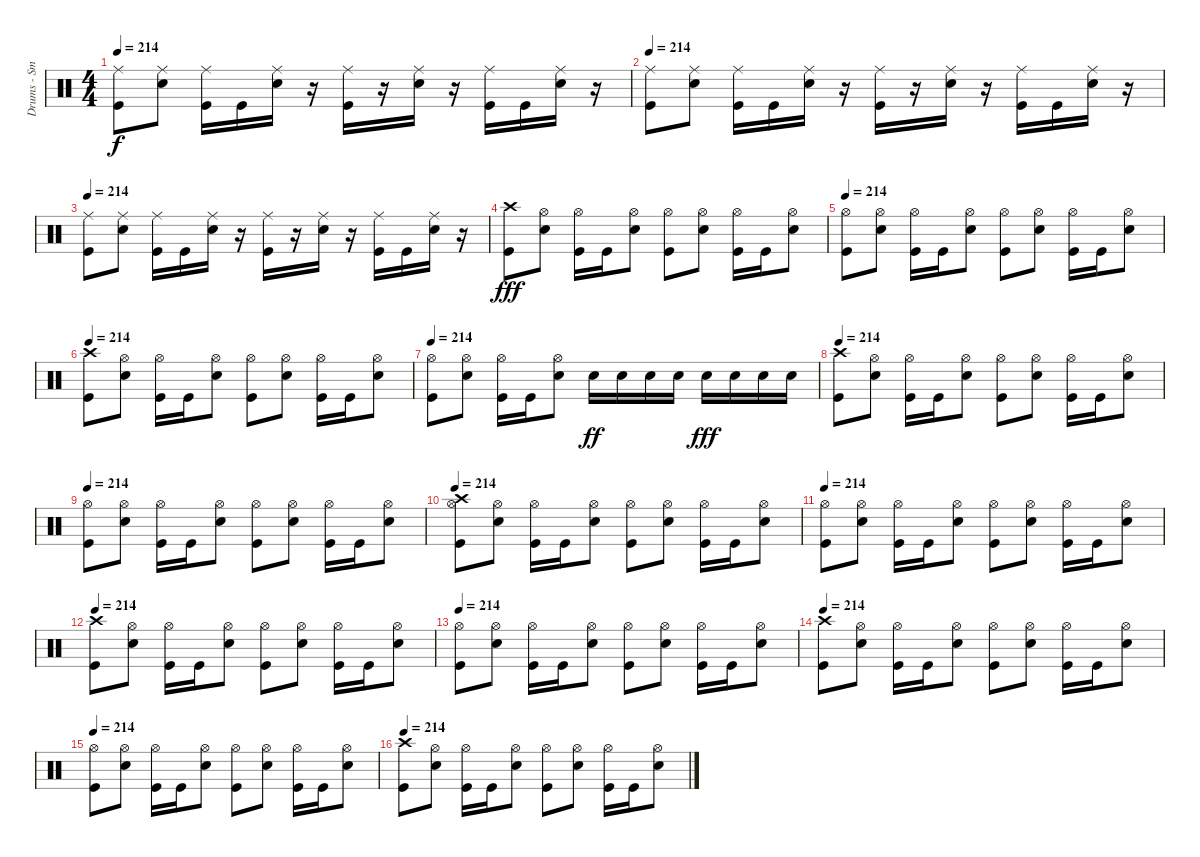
\track ("Drums - Smelly" "Drums - Sm") {instrument percussion}
\staff {score}
\articulation defaults
\ts (4 4)
\tempo 214
\clef neutral
\ks c
("Ride (middle)" "Kick (hit)").8{dy f} ("Snare (hit) 2" "Ride (middle)").8 ("Ride (middle)" "Kick (hit)").16 "Kick (hit)".16 ("Ride (middle)" "Snare (hit) 2").16 r.16 ("Ride (middle)" "Kick (hit)").16 r.16 ("Snare (hit) 2" "Ride (middle)").16 r.16 ("Ride (middle)" "Kick (hit)").16 "Kick (hit)".16 ("Snare (hit) 2" "Ride (middle)").16 r.16 |
\tempo 214
("Kick (hit)" "Ride (middle)").8 ("Ride (middle)" "Snare (hit) 2").8 ("Ride (middle)" "Kick (hit)").16 "Kick (hit)".16 ("Ride (middle)" "Snare (hit) 2").16 r.16 ("Kick (hit)" "Ride (middle)").16 r.16 ("Ride (middle)" "Snare (hit) 2").16 r.16 ("Ride (middle)" "Kick (hit)").16 "Kick (hit)".16 ("Ride (middle)" "Snare (hit) 2").16 r.16 |
\tempo 214
("Ride (middle)" "Kick (hit)").8 ("Snare (hit) 2" "Ride (middle)").8 ("Kick (hit)" "Ride (middle)").16 "Kick (hit)".16 ("Ride (middle)" "Snare (hit) 2").16 r.16 ("Kick (hit)" "Ride (middle)").16 r.16 ("Snare (hit) 2" "Ride (middle)").16 r.16 ("Ride (middle)" "Kick (hit)").16 "Kick (hit)".16 ("Ride (middle)" "Snare (hit) 2").16 r.16 |
("Crash high (hit)" "Kick (hit)").8{dy fff} ("Hi-Hat (open)" "Electric Snare (hit)").8 ("Hi-Hat (open)" "Kick (hit)").16 "Kick (hit)".16 ("Hi-Hat (open)" "Electric Snare (hit)").8 ("Hi-Hat (open)" "Kick (hit)").8 ("Electric Snare (hit)" "Hi-Hat (open)").8 ("Kick (hit)" "Hi-Hat (open)").16 "Kick (hit)".16 ("Hi-Hat (open)" "Electric Snare (hit)").8 |
\tempo 214
("Kick (hit)" "Hi-Hat (open)").8 ("Hi-Hat (open)" "Electric Snare (hit)").8 ("Hi-Hat (open)" "Kick (hit)").16 "Kick (hit)".16 ("Electric Snare (hit)" "Hi-Hat (open)").8 ("Hi-Hat (open)" "Kick (hit)").8 ("Hi-Hat (open)" "Electric Snare (hit)").8 ("Kick (hit)" "Hi-Hat (open)").16 "Kick (hit)".16 ("Electric Snare (hit)" "Hi-Hat (open)").8 |
\tempo 214
("Crash high (hit)" "Kick (hit)").8 ("Hi-Hat (open)" "Electric Snare (hit)").8 ("Hi-Hat (open)" "Kick (hit)").16 "Kick (hit)".16 ("Hi-Hat (open)" "Electric Snare (hit)").8 ("Kick (hit)" "Hi-Hat (open)").8 ("Hi-Hat (open)" "Electric Snare (hit)").8 ("Hi-Hat (open)" "Kick (hit)").16 "Kick (hit)".16 ("Hi-Hat (open)" "Electric Snare (hit)").8 |
\tempo 214
("Kick (hit)" "Hi-Hat (open)").8 ("Hi-Hat (open)" "Electric Snare (hit)").8 ("Hi-Hat (open)" "Kick (hit)").16 "Kick (hit)".16 ("Electric Snare (hit)" "Hi-Hat (open)").8 "Electric Snare (hit)".16{dy ff} "Electric Snare (hit)".16 "Electric Snare (hit)".16 "Electric Snare (hit)".16 "Electric Snare (hit)".16{dy fff} "Electric Snare (hit)".16 "Electric Snare (hit)".16 "Electric Snare (hit)".16 |
\tempo 214
("Kick (hit)" "Crash high (hit)").8 ("Hi-Hat (open)" "Electric Snare (hit)").8 ("Hi-Hat (open)" "Kick (hit)").16 "Kick (hit)".16 ("Hi-Hat (open)" "Electric Snare (hit)").8 ("Kick (hit)" "Hi-Hat (open)").8 ("Hi-Hat (open)" "Electric Snare (hit)").8 ("Hi-Hat (open)" "Kick (hit)").16 "Kick (hit)".16 ("Hi-Hat (open)" "Electric Snare (hit)").8 |
\tempo 214
("Kick (hit)" "Hi-Hat (open)").8 ("Electric Snare (hit)" "Hi-Hat (open)").8 ("Kick (hit)" "Hi-Hat (open)").16 "Kick (hit)".16 ("Electric Snare (hit)" "Hi-Hat (open)").8 ("Hi-Hat (open)" "Kick (hit)").8 ("Hi-Hat (open)" "Electric Snare (hit)").8 ("Kick (hit)" "Hi-Hat (open)").16 "Kick (hit)".16 ("Electric Snare (hit)" "Hi-Hat (open)").8 |
\tempo 214
("Kick (hit)" "Hi-Hat (open)" "Crash high (hit)").8 ("Hi-Hat (open)" "Electric Snare (hit)").8 ("Hi-Hat (open)" "Kick (hit)").16 "Kick (hit)".16 ("Hi-Hat (open)" "Electric Snare (hit)").8 ("Kick (hit)" "Hi-Hat (open)").8 ("Hi-Hat (open)" "Electric Snare (hit)").8 ("Kick (hit)" "Hi-Hat (open)").16 "Kick (hit)".16 ("Electric Snare (hit)" "Hi-Hat (open)").8 |
\tempo 214
("Hi-Hat (open)" "Kick (hit)").8 ("Hi-Hat (open)" "Electric Snare (hit)").8 ("Kick (hit)" "Hi-Hat (open)").16 "Kick (hit)".16 ("Electric Snare (hit)" "Hi-Hat (open)").8 ("Hi-Hat (open)" "Kick (hit)").8 ("Hi-Hat (open)" "Electric Snare (hit)").8 ("Kick (hit)" "Hi-Hat (open)").16 "Kick (hit)".16 ("Electric Snare (hit)" "Hi-Hat (open)").8 |
\tempo 214
("Crash high (hit)" "Kick (hit)").8 ("Electric Snare (hit)" "Hi-Hat (open)").8 ("Hi-Hat (open)" "Kick (hit)").16 "Kick (hit)".16 ("Hi-Hat (open)" "Electric Snare (hit)").8 ("Hi-Hat (open)" "Kick (hit)").8 ("Electric Snare (hit)" "Hi-Hat (open)").8 ("Hi-Hat (open)" "Kick (hit)").16 "Kick (hit)".16 ("Hi-Hat (open)" "Electric Snare (hit)").8 |
\tempo 214
("Hi-Hat (open)" "Kick (hit)").8 ("Electric Snare (hit)" "Hi-Hat (open)").8 ("Kick (hit)" "Hi-Hat (open)").16 "Kick (hit)".16 ("Hi-Hat (open)" "Electric Snare (hit)").8 ("Kick (hit)" "Hi-Hat (open)").8 ("Hi-Hat (open)" "Electric Snare (hit)").8 ("Hi-Hat (open)" "Kick (hit)").16 "Kick (hit)".16 ("Hi-Hat (open)" "Electric Snare (hit)").8 |
\tempo 214
("Kick (hit)" "Crash high (hit)").8 ("Hi-Hat (open)" "Electric Snare (hit)").8 ("Hi-Hat (open)" "Kick (hit)").16 "Kick (hit)".16 ("Hi-Hat (open)" "Electric Snare (hit)").8 ("Kick (hit)" "Hi-Hat (open)").8 ("Electric Snare (hit)" "Hi-Hat (open)").8 ("Kick (hit)" "Hi-Hat (open)").16 "Kick (hit)".16 ("Electric Snare (hit)" "Hi-Hat (open)").8 |
\tempo 214
("Hi-Hat (open)" "Kick (hit)").8 ("Hi-Hat (open)" "Electric Snare (hit)").8 ("Kick (hit)" "Hi-Hat (open)").16 "Kick (hit)".16 ("Electric Snare (hit)" "Hi-Hat (open)").8 ("Hi-Hat (open)" "Kick (hit)").8 ("Hi-Hat (open)" "Electric Snare (hit)").8 ("Kick (hit)" "Hi-Hat (open)").16 "Kick (hit)".16 ("Electric Snare (hit)" "Hi-Hat (open)").8 |
\tempo 214
("Kick (hit)" "Crash high (hit)").8 ("Electric Snare (hit)" "Hi-Hat (open)").8 ("Hi-Hat (open)" "Kick (hit)").16 "Kick (hit)".16 ("Hi-Hat (open)" "Electric Snare (hit)").8 ("Hi-Hat (open)" "Kick (hit)").8 ("Electric Snare (hit)" "Hi-Hat (open)").8 ("Hi-Hat (open)" "Kick (hit)").16 "Kick (hit)".16 ("Hi-Hat (open)" "Electric Snare (hit)").8
